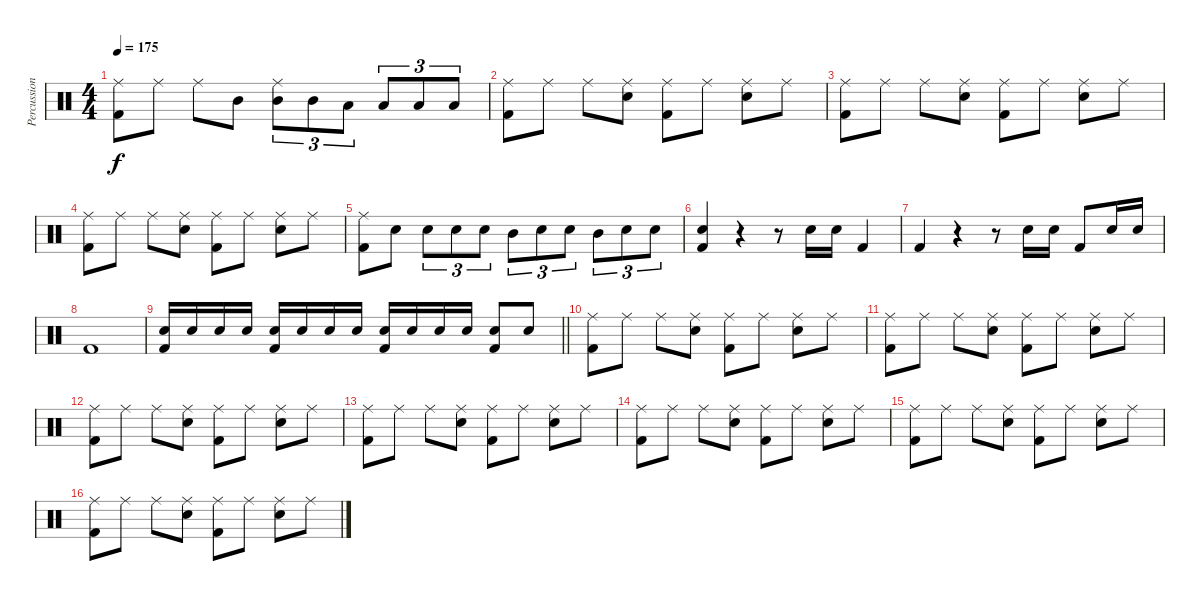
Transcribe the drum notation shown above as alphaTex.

\track ("Percussion" "Percussion") {instrument percussion}
\staff {score}
\articulation defaults
\ts (4 4)
\tempo 175
\clef neutral
\ks c
("Ride (middle)" "Kick (hit) 2").8{dy f} "Ride (middle)".8 "Ride (middle)".8 "Mid Tom (hit)".8 ("Ride (middle)" "Mid Tom (hit)").8{tu (3 2)} "Mid Tom (hit)".8{tu (3 2)} "Low Floor Tom (hit)".8{tu (3 2)} "Low Floor Tom (hit)".8{tu (3 2)} "Low Floor Tom (hit)".8{tu (3 2)} "Low Floor Tom (hit)".8{tu (3 2)} |
("Ride (middle)" "Kick (hit) 2").8 "Ride (middle)".8 "Ride (middle)".8 ("Ride (middle)" "Snare (hit) 2").8 ("Ride (middle)" "Kick (hit) 2").8 "Ride (middle)".8 ("Ride (middle)" "Snare (hit) 2").8 "Ride (middle)".8 |
("Ride (middle)" "Kick (hit) 2").8 "Ride (middle)".8 "Ride (middle)".8 ("Ride (middle)" "Snare (hit) 2").8 ("Ride (middle)" "Kick (hit) 2").8 "Ride (middle)".8 ("Ride (middle)" "Snare (hit) 2").8 "Ride (middle)".8 |
("Ride (middle)" "Kick (hit) 2").8 "Ride (middle)".8 "Ride (middle)".8 ("Ride (middle)" "Snare (hit) 2").8 ("Ride (middle)" "Kick (hit) 2").8 "Ride (middle)".8 ("Ride (middle)" "Snare (hit) 2").8 "Ride (middle)".8 |
("Ride (middle)" "Kick (hit) 2").8 "Snare (hit) 2".8 "Snare (hit) 2".8{tu (3 2)} "Snare (hit) 2".8{tu (3 2)} "Snare (hit) 2".8{tu (3 2)} "Mid Tom (hit)".8{tu (3 2)} "Snare (hit) 2".8{tu (3 2)} "Snare (hit) 2".8{tu (3 2)} "Mid Tom (hit)".8{tu (3 2)} "Snare (hit) 2".8{tu (3 2)} "Snare (hit) 2".8{tu (3 2)} |
("Snare (hit) 2" "Kick (hit) 2").4 r.4 r.8 "Snare (hit) 2".16 "Snare (hit) 2".16 "Kick (hit) 2".4 |
"Kick (hit) 2".4 r.4 r.8 "Snare (hit) 2".16 "Snare (hit) 2".16 "Kick (hit) 2".8 "Snare (hit) 2".16 "Snare (hit) 2".16 |
"Kick (hit) 2".1 |
\barLineRight lightlight
("Snare (hit) 2" "Kick (hit) 2").16 "Snare (hit) 2".16 "Snare (hit) 2".16 "Snare (hit) 2".16 ("Snare (hit) 2" "Kick (hit) 2").16 "Snare (hit) 2".16 "Snare (hit) 2".16 "Snare (hit) 2".16 ("Snare (hit) 2" "Kick (hit) 2").16 "Snare (hit) 2".16 "Snare (hit) 2".16 "Snare (hit) 2".16 ("Snare (hit) 2" "Kick (hit) 2").8 "Snare (hit) 2".8 |
("Ride (middle)" "Kick (hit) 2").8 "Ride (middle)".8 "Ride (middle)".8 ("Ride (middle)" "Snare (hit) 2").8 ("Ride (middle)" "Kick (hit) 2").8 "Ride (middle)".8 ("Ride (middle)" "Snare (hit) 2").8 "Ride (middle)".8 |
("Ride (middle)" "Kick (hit) 2").8 "Ride (middle)".8 "Ride (middle)".8 ("Ride (middle)" "Snare (hit) 2").8 ("Ride (middle)" "Kick (hit) 2").8 "Ride (middle)".8 ("Ride (middle)" "Snare (hit) 2").8 "Ride (middle)".8 |
("Ride (middle)" "Kick (hit) 2").8 "Ride (middle)".8 "Ride (middle)".8 ("Ride (middle)" "Snare (hit) 2").8 ("Ride (middle)" "Kick (hit) 2").8 "Ride (middle)".8 ("Ride (middle)" "Snare (hit) 2").8 "Ride (middle)".8 |
("Ride (middle)" "Kick (hit) 2").8 "Ride (middle)".8 "Ride (middle)".8 ("Ride (middle)" "Snare (hit) 2").8 ("Ride (middle)" "Kick (hit) 2").8 "Ride (middle)".8 ("Ride (middle)" "Snare (hit) 2").8 "Ride (middle)".8 |
("Ride (middle)" "Kick (hit) 2").8 "Ride (middle)".8 "Ride (middle)".8 ("Ride (middle)" "Snare (hit) 2").8 ("Ride (middle)" "Kick (hit) 2").8 "Ride (middle)".8 ("Ride (middle)" "Snare (hit) 2").8 "Ride (middle)".8 |
("Ride (middle)" "Kick (hit) 2").8 "Ride (middle)".8 "Ride (middle)".8 ("Ride (middle)" "Snare (hit) 2").8 ("Ride (middle)" "Kick (hit) 2").8 "Ride (middle)".8 ("Ride (middle)" "Snare (hit) 2").8 "Ride (middle)".8 |
("Ride (middle)" "Kick (hit) 2").8 "Ride (middle)".8 "Ride (middle)".8 ("Ride (middle)" "Snare (hit) 2").8 ("Ride (middle)" "Kick (hit) 2").8 "Ride (middle)".8 ("Ride (middle)" "Snare (hit) 2").8 "Ride (middle)".8
